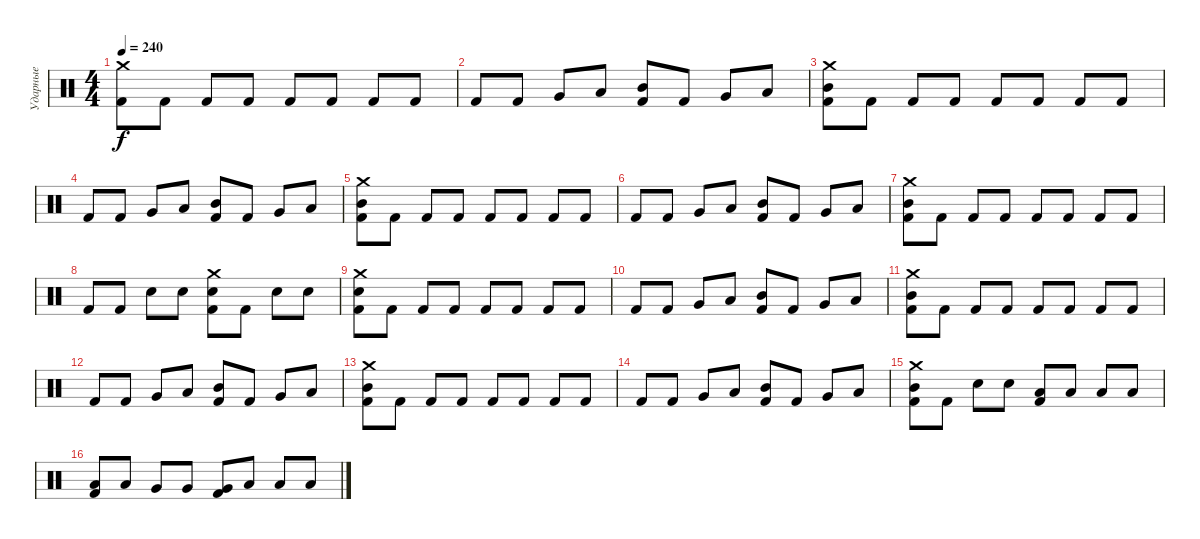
\track ("Ударные" "Ударные") {instrument percussion}
\staff {score}
\articulation defaults
\ts (4 4)
\tempo 240
\clef neutral
\ks c
("Crash medium (hit)" "Kick (hit) 2").8{dy f} "Kick (hit) 2".8 "Kick (hit) 2".8 "Kick (hit) 2".8 "Kick (hit) 2".8 "Kick (hit) 2".8 "Kick (hit) 2".8 "Kick (hit) 2".8 |
"Kick (hit) 2".8 "Kick (hit) 2".8 "Very Low Tom (hit)".8 "Low Tom (hit)".8 ("Mid Tom (hit)" "Kick (hit) 2").8 "Kick (hit) 2".8 "Very Low Tom (hit)".8 "Low Tom (hit)".8 |
("Crash medium (hit)" "Mid Tom (hit)" "Kick (hit) 2").8 "Kick (hit) 2".8 "Kick (hit) 2".8 "Kick (hit) 2".8 "Kick (hit) 2".8 "Kick (hit) 2".8 "Kick (hit) 2".8 "Kick (hit) 2".8 |
"Kick (hit) 2".8 "Kick (hit) 2".8 "Very Low Tom (hit)".8 "Low Tom (hit)".8 ("Mid Tom (hit)" "Kick (hit) 2").8 "Kick (hit) 2".8 "Very Low Tom (hit)".8 "Low Tom (hit)".8 |
("Crash medium (hit)" "Mid Tom (hit)" "Kick (hit) 2").8 "Kick (hit) 2".8 "Kick (hit) 2".8 "Kick (hit) 2".8 "Kick (hit) 2".8 "Kick (hit) 2".8 "Kick (hit) 2".8 "Kick (hit) 2".8 |
"Kick (hit) 2".8 "Kick (hit) 2".8 "Very Low Tom (hit)".8 "Low Tom (hit)".8 ("Mid Tom (hit)" "Kick (hit) 2").8 "Kick (hit) 2".8 "Very Low Tom (hit)".8 "Low Tom (hit)".8 |
("Crash medium (hit)" "Mid Tom (hit)" "Kick (hit) 2").8 "Kick (hit) 2".8 "Kick (hit) 2".8 "Kick (hit) 2".8 "Kick (hit) 2".8 "Kick (hit) 2".8 "Kick (hit) 2".8 "Kick (hit) 2".8 |
"Kick (hit) 2".8 "Kick (hit) 2".8 "Snare (hit) 2".8 "Snare (hit) 2".8 ("Crash medium (hit)" "Snare (hit) 2" "Kick (hit) 2").8 "Kick (hit) 2".8 "Snare (hit) 2".8 "Snare (hit) 2".8 |
("Crash medium (hit)" "Snare (hit) 2" "Kick (hit) 2").8 "Kick (hit) 2".8 "Kick (hit) 2".8 "Kick (hit) 2".8 "Kick (hit) 2".8 "Kick (hit) 2".8 "Kick (hit) 2".8 "Kick (hit) 2".8 |
"Kick (hit) 2".8 "Kick (hit) 2".8 "Very Low Tom (hit)".8 "Low Tom (hit)".8 ("Mid Tom (hit)" "Kick (hit) 2").8 "Kick (hit) 2".8 "Very Low Tom (hit)".8 "Low Tom (hit)".8 |
("Crash medium (hit)" "Mid Tom (hit)" "Kick (hit) 2").8 "Kick (hit) 2".8 "Kick (hit) 2".8 "Kick (hit) 2".8 "Kick (hit) 2".8 "Kick (hit) 2".8 "Kick (hit) 2".8 "Kick (hit) 2".8 |
"Kick (hit) 2".8 "Kick (hit) 2".8 "Very Low Tom (hit)".8 "Low Tom (hit)".8 ("Mid Tom (hit)" "Kick (hit) 2").8 "Kick (hit) 2".8 "Very Low Tom (hit)".8 "Low Tom (hit)".8 |
("Crash medium (hit)" "Mid Tom (hit)" "Kick (hit) 2").8 "Kick (hit) 2".8 "Kick (hit) 2".8 "Kick (hit) 2".8 "Kick (hit) 2".8 "Kick (hit) 2".8 "Kick (hit) 2".8 "Kick (hit) 2".8 |
"Kick (hit) 2".8 "Kick (hit) 2".8 "Very Low Tom (hit)".8 "Low Tom (hit)".8 ("Mid Tom (hit)" "Kick (hit) 2").8 "Kick (hit) 2".8 "Very Low Tom (hit)".8 "Low Tom (hit)".8 |
("Crash medium (hit)" "Mid Tom (hit)" "Kick (hit) 2").8 "Kick (hit) 2".8 "Snare (hit) 2".8 "Snare (hit) 2".8 ("Low Tom (hit)" "Kick (hit) 2").8 "Low Tom (hit)".8 "Low Tom (hit)".8 "Low Tom (hit)".8 |
("Low Tom (hit)" "Kick (hit) 2").8 "Low Tom (hit)".8 "Very Low Tom (hit)".8 "Very Low Tom (hit)".8 ("Very Low Tom (hit)" "Kick (hit) 2").8 "Low Floor Tom (hit)".8 "Low Floor Tom (hit)".8 "Low Floor Tom (hit)".8
